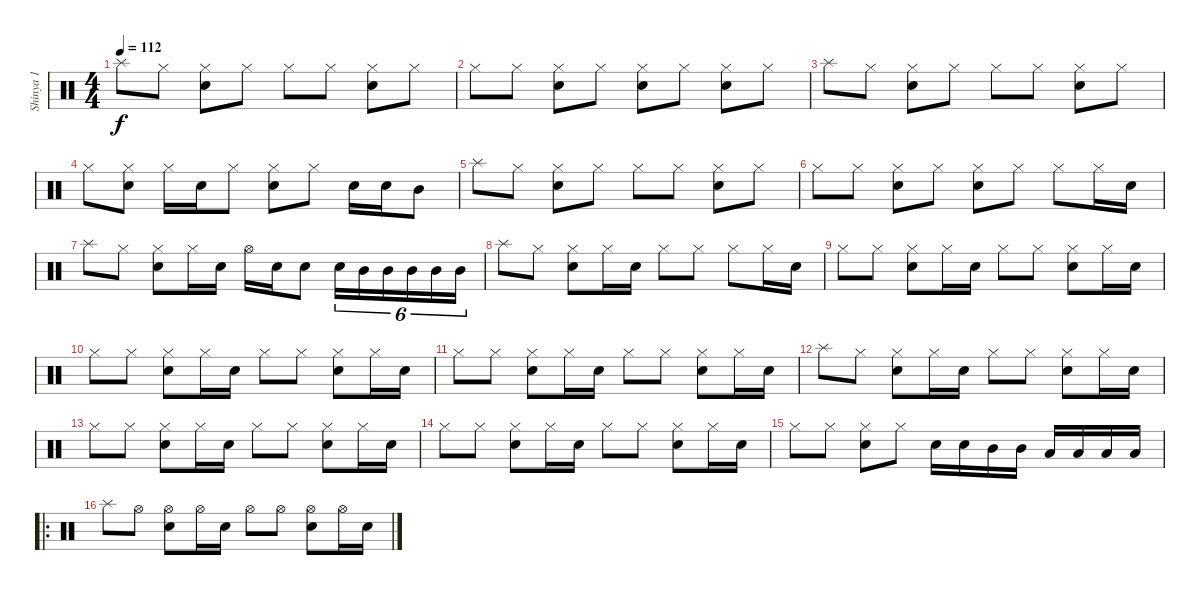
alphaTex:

\track ("Shinya 1" "Shinya 1") {instrument percussion}
\staff {score}
\articulation defaults
\ts (4 4)
\tempo 112
\clef neutral
\ks c "Splash (hit)".8{dy f} "Hi-Hat (closed)".8
("Hi-Hat (closed)" "Snare (hit) 2").8 "Hi-Hat (closed)".8 "Hi-Hat (closed)".8 "Hi-Hat (closed)".8 ("Hi-Hat (closed)" "Snare (hit) 2").8 "Hi-Hat (closed)".8 |
"Hi-Hat (closed)".8 "Hi-Hat (closed)".8 ("Hi-Hat (closed)" "Snare (hit) 2").8 "Hi-Hat (closed)".8 ("Hi-Hat (closed)" "Snare (hit) 2").8 "Hi-Hat (closed)".8 ("Hi-Hat (closed)" "Snare (hit) 2").8 "Hi-Hat (closed)".8 |
"Splash (hit)".8 "Hi-Hat (closed)".8 ("Hi-Hat (closed)" "Snare (hit) 2").8 "Hi-Hat (closed)".8 "Hi-Hat (closed)".8 "Hi-Hat (closed)".8 ("Hi-Hat (closed)" "Snare (hit) 2").8 "Hi-Hat (closed)".8 |
"Hi-Hat (closed)".8 ("Hi-Hat (closed)" "Snare (hit) 2").8 "Hi-Hat (closed)".16 "Snare (hit) 2".16 "Hi-Hat (closed)".8 ("Hi-Hat (closed)" "Snare (hit) 2").8 "Hi-Hat (closed)".8 "Snare (hit) 2".16 "Snare (hit) 2".16 "Mid Tom (hit)".8 |
"Splash (hit)".8 "Hi-Hat (closed)".8 ("Hi-Hat (closed)" "Snare (hit) 2").8 "Hi-Hat (closed)".8 "Hi-Hat (closed)".8 "Hi-Hat (closed)".8 ("Hi-Hat (closed)" "Snare (hit) 2").8 "Hi-Hat (closed)".8 |
"Hi-Hat (closed)".8 "Hi-Hat (closed)".8 ("Hi-Hat (closed)" "Snare (hit) 2").8 "Hi-Hat (closed)".8 ("Hi-Hat (closed)" "Snare (hit) 2").8 "Hi-Hat (closed)".8 "Hi-Hat (closed)".8 "Hi-Hat (closed)".16 "Snare (hit) 2".16 |
"Splash (hit)".8 "Hi-Hat (closed)".8 ("Hi-Hat (closed)" "Snare (hit) 2").8 "Hi-Hat (closed)".16 "Snare (hit) 2".16 "Hi-Hat (open)".16 "Snare (hit) 2".16 "Snare (hit) 2".8 "Snare (hit) 2".16{tu (6 4)} "Mid Tom (hit)".16{tu (6 4)} "Mid Tom (hit)".16{tu (6 4)} "Mid Tom (hit)".16{tu (6 4)} "Mid Tom (hit)".16{tu (6 4)} "Mid Tom (hit)".16{tu (6 4)} |
"Splash (hit)".8 "Hi-Hat (closed)".8 ("Hi-Hat (closed)" "Snare (hit) 2").8 "Hi-Hat (closed)".16 "Snare (hit) 2".16 "Hi-Hat (closed)".8 "Hi-Hat (closed)".8 "Hi-Hat (closed)".8 "Hi-Hat (closed)".16 "Snare (hit) 2".16 |
"Hi-Hat (closed)".8 "Hi-Hat (closed)".8 ("Hi-Hat (closed)" "Snare (hit) 2").8 "Hi-Hat (closed)".16 "Snare (hit) 2".16 "Hi-Hat (closed)".8 "Hi-Hat (closed)".8 ("Hi-Hat (closed)" "Snare (hit) 2").8 "Hi-Hat (closed)".16 "Snare (hit) 2".16 |
"Hi-Hat (closed)".8 "Hi-Hat (closed)".8 ("Hi-Hat (closed)" "Snare (hit) 2").8 "Hi-Hat (closed)".16 "Snare (hit) 2".16 "Hi-Hat (closed)".8 "Hi-Hat (closed)".8 ("Hi-Hat (closed)" "Snare (hit) 2").8 "Hi-Hat (closed)".16 "Snare (hit) 2".16 |
"Hi-Hat (closed)".8 "Hi-Hat (closed)".8 ("Hi-Hat (closed)" "Snare (hit) 2").8 "Hi-Hat (closed)".16 "Snare (hit) 2".16 "Hi-Hat (closed)".8 "Hi-Hat (closed)".8 ("Hi-Hat (closed)" "Snare (hit) 2").8 "Hi-Hat (closed)".16 "Snare (hit) 2".16 |
"Splash (hit)".8 "Hi-Hat (closed)".8 ("Hi-Hat (closed)" "Snare (hit) 2").8 "Hi-Hat (closed)".16 "Snare (hit) 2".16 "Hi-Hat (closed)".8 "Hi-Hat (closed)".8 ("Hi-Hat (closed)" "Snare (hit) 2").8 "Hi-Hat (closed)".16 "Snare (hit) 2".16 |
"Hi-Hat (closed)".8 "Hi-Hat (closed)".8 ("Hi-Hat (closed)" "Snare (hit) 2").8 "Hi-Hat (closed)".16 "Snare (hit) 2".16 "Hi-Hat (closed)".8 "Hi-Hat (closed)".8 ("Hi-Hat (closed)" "Snare (hit) 2").8 "Hi-Hat (closed)".16 "Snare (hit) 2".16 |
"Hi-Hat (closed)".8 "Hi-Hat (closed)".8 ("Hi-Hat (closed)" "Snare (hit) 2").8 "Hi-Hat (closed)".16 "Snare (hit) 2".16 "Hi-Hat (closed)".8 "Hi-Hat (closed)".8 ("Hi-Hat (closed)" "Snare (hit) 2").8 "Hi-Hat (closed)".16 "Snare (hit) 2".16 |
"Hi-Hat (closed)".8 "Hi-Hat (closed)".8 ("Hi-Hat (closed)" "Snare (hit) 2").8 "Hi-Hat (closed)".8 "Snare (hit) 2".16 "Snare (hit) 2".16 "Mid Tom (hit)".16 "Mid Tom (hit)".16 "Low Tom (hit)".16 "Low Tom (hit)".16 "Low Floor Tom (hit)".16 "Low Floor Tom (hit)".16 |
\ro "Splash (hit)".8 "Hi-Hat (open)".8
("Hi-Hat (open)" "Snare (hit) 2").8 "Hi-Hat (open)".16 "Snare (hit) 2".16 "Hi-Hat (open)".8 "Hi-Hat (open)".8 ("Hi-Hat (open)" "Snare (hit) 2").8 "Hi-Hat (open)".16 "Snare (hit) 2".16
